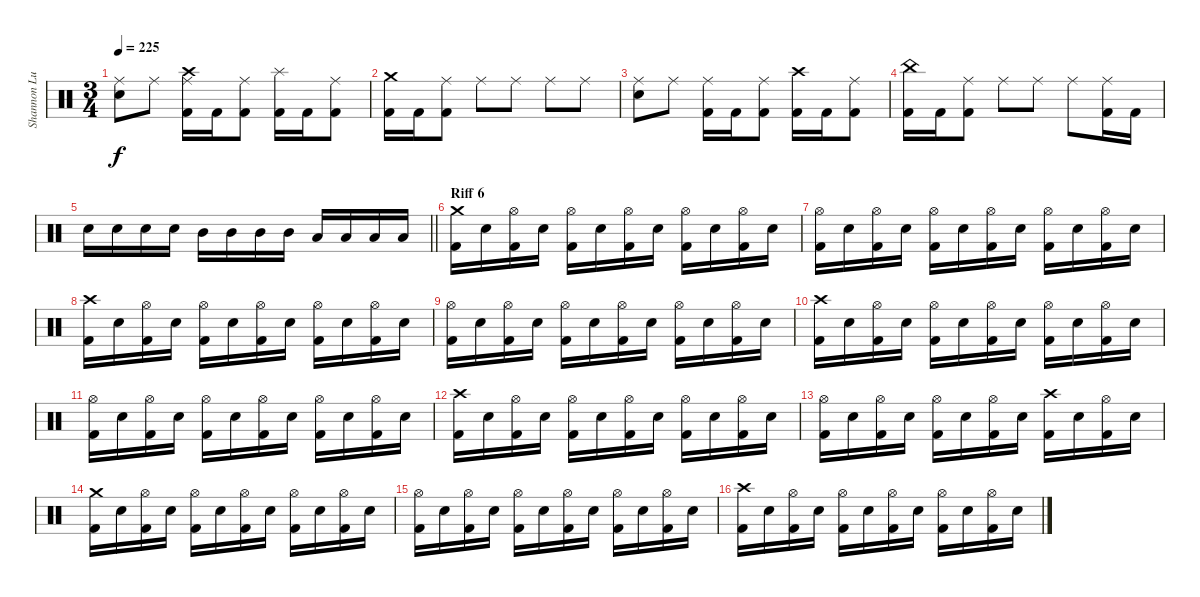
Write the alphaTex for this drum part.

\track ("Shannon Lucas" "Shannon Lu") {instrument percussion}
\staff {score}
\articulation defaults
\ts (3 4)
\tempo 225
\clef neutral
\ks c
("Ride (middle)" "Electric Snare (hit)").8{dy f} "Ride (middle)".8 ("Crash high (hit)" "Ride (middle)" "Kick (hit) 2").16 "Kick (hit) 2".16 ("Ride (middle)" "Kick (hit) 2").8 ("Splash (hit)" "Kick (hit) 2").16 "Kick (hit) 2".16 ("Ride (middle)" "Kick (hit) 2").8 |
("Crash medium (hit)" "Kick (hit) 2").16 "Kick (hit) 2".16 ("Ride (middle)" "Kick (hit) 2").8 "Ride (middle)".8 "Ride (middle)".8 "Ride (middle)".8 "Ride (middle)".8 |
("Ride (middle)" "Electric Snare (hit)").8 "Ride (middle)".8 ("Ride (middle)" "Kick (hit) 2").16 "Kick (hit) 2".16 ("Ride (middle)" "Kick (hit) 2").8 ("Crash high (hit)" "Kick (hit) 2").16 "Kick (hit) 2".16 ("Ride (middle)" "Kick (hit) 2").8 |
("China (hit)" "Kick (hit) 2").16 "Kick (hit) 2".16 ("Ride (middle)" "Kick (hit) 2").8 "Ride (middle)".8 "Ride (middle)".8 "Ride (middle)".8 ("Ride (middle)" "Kick (hit) 2").16 "Kick (hit) 2".16 |
\barLineRight lightlight "Electric Snare (hit)".16 "Electric Snare (hit)".16 "Electric Snare (hit)".16 "Electric Snare (hit)".16 "Mid Tom (hit)".16 "Mid Tom (hit)".16 "Mid Tom (hit)".16 "Mid Tom (hit)".16 "Low Tom (hit)".16 "Low Tom (hit)".16 "Low Tom (hit)".16 "Low Tom (hit)".16
|
\section ("" "Riff 6")
("Crash medium (hit)" "Kick (hit) 2").16 "Electric Snare (hit)".16 ("Hi-Hat (open)" "Kick (hit) 2").16 "Electric Snare (hit)".16 ("Hi-Hat (open)" "Kick (hit) 2").16 "Electric Snare (hit)".16 ("Hi-Hat (open)" "Kick (hit) 2").16 "Electric Snare (hit)".16 ("Hi-Hat (open)" "Kick (hit) 2").16 "Electric Snare (hit)".16 ("Hi-Hat (open)" "Kick (hit) 2").16 "Electric Snare (hit)".16 |
("Hi-Hat (open)" "Kick (hit) 2").16 "Electric Snare (hit)".16 ("Hi-Hat (open)" "Kick (hit) 2").16 "Electric Snare (hit)".16 ("Hi-Hat (open)" "Kick (hit) 2").16 "Electric Snare (hit)".16 ("Hi-Hat (open)" "Kick (hit) 2").16 "Electric Snare (hit)".16 ("Hi-Hat (open)" "Kick (hit) 2").16 "Electric Snare (hit)".16 ("Hi-Hat (open)" "Kick (hit) 2").16 "Electric Snare (hit)".16 |
("Crash high (hit)" "Kick (hit) 2").16 "Electric Snare (hit)".16 ("Hi-Hat (open)" "Kick (hit) 2").16 "Electric Snare (hit)".16 ("Hi-Hat (open)" "Kick (hit) 2").16 "Electric Snare (hit)".16 ("Hi-Hat (open)" "Kick (hit) 2").16 "Electric Snare (hit)".16 ("Hi-Hat (open)" "Kick (hit) 2").16 "Electric Snare (hit)".16 ("Hi-Hat (open)" "Kick (hit) 2").16 "Electric Snare (hit)".16 |
("Hi-Hat (open)" "Kick (hit) 2").16 "Electric Snare (hit)".16 ("Hi-Hat (open)" "Kick (hit) 2").16 "Electric Snare (hit)".16 ("Hi-Hat (open)" "Kick (hit) 2").16 "Electric Snare (hit)".16 ("Hi-Hat (open)" "Kick (hit) 2").16 "Electric Snare (hit)".16 ("Hi-Hat (open)" "Kick (hit) 2").16 "Electric Snare (hit)".16 ("Hi-Hat (open)" "Kick (hit) 2").16 "Electric Snare (hit)".16 |
("Crash high (hit)" "Kick (hit) 2").16 "Electric Snare (hit)".16 ("Hi-Hat (open)" "Kick (hit) 2").16 "Electric Snare (hit)".16 ("Hi-Hat (open)" "Kick (hit) 2").16 "Electric Snare (hit)".16 ("Hi-Hat (open)" "Kick (hit) 2").16 "Electric Snare (hit)".16 ("Hi-Hat (open)" "Kick (hit) 2").16 "Electric Snare (hit)".16 ("Hi-Hat (open)" "Kick (hit) 2").16 "Electric Snare (hit)".16 |
("Hi-Hat (open)" "Kick (hit) 2").16 "Electric Snare (hit)".16 ("Hi-Hat (open)" "Kick (hit) 2").16 "Electric Snare (hit)".16 ("Hi-Hat (open)" "Kick (hit) 2").16 "Electric Snare (hit)".16 ("Hi-Hat (open)" "Kick (hit) 2").16 "Electric Snare (hit)".16 ("Hi-Hat (open)" "Kick (hit) 2").16 "Electric Snare (hit)".16 ("Hi-Hat (open)" "Kick (hit) 2").16 "Electric Snare (hit)".16 |
("Crash high (hit)" "Kick (hit) 2").16 "Electric Snare (hit)".16 ("Hi-Hat (open)" "Kick (hit) 2").16 "Electric Snare (hit)".16 ("Hi-Hat (open)" "Kick (hit) 2").16 "Electric Snare (hit)".16 ("Hi-Hat (open)" "Kick (hit) 2").16 "Electric Snare (hit)".16 ("Hi-Hat (open)" "Kick (hit) 2").16 "Electric Snare (hit)".16 ("Hi-Hat (open)" "Kick (hit) 2").16 "Electric Snare (hit)".16 |
("Hi-Hat (open)" "Kick (hit) 2").16 "Electric Snare (hit)".16 ("Hi-Hat (open)" "Kick (hit) 2").16 "Electric Snare (hit)".16 ("Hi-Hat (open)" "Kick (hit) 2").16 "Electric Snare (hit)".16 ("Hi-Hat (open)" "Kick (hit) 2").16 "Electric Snare (hit)".16 ("Crash high (hit)" "Kick (hit) 2").16 "Electric Snare (hit)".16 ("Hi-Hat (open)" "Kick (hit) 2").16 "Electric Snare (hit)".16 |
("Crash medium (hit)" "Kick (hit) 2").16 "Electric Snare (hit)".16 ("Hi-Hat (open)" "Kick (hit) 2").16 "Electric Snare (hit)".16 ("Hi-Hat (open)" "Kick (hit) 2").16 "Electric Snare (hit)".16 ("Hi-Hat (open)" "Kick (hit) 2").16 "Electric Snare (hit)".16 ("Hi-Hat (open)" "Kick (hit) 2").16 "Electric Snare (hit)".16 ("Hi-Hat (open)" "Kick (hit) 2").16 "Electric Snare (hit)".16 |
("Hi-Hat (open)" "Kick (hit) 2").16 "Electric Snare (hit)".16 ("Hi-Hat (open)" "Kick (hit) 2").16 "Electric Snare (hit)".16 ("Hi-Hat (open)" "Kick (hit) 2").16 "Electric Snare (hit)".16 ("Hi-Hat (open)" "Kick (hit) 2").16 "Electric Snare (hit)".16 ("Hi-Hat (open)" "Kick (hit) 2").16 "Electric Snare (hit)".16 ("Hi-Hat (open)" "Kick (hit) 2").16 "Electric Snare (hit)".16 |
("Crash high (hit)" "Kick (hit) 2").16 "Electric Snare (hit)".16 ("Hi-Hat (open)" "Kick (hit) 2").16 "Electric Snare (hit)".16 ("Hi-Hat (open)" "Kick (hit) 2").16 "Electric Snare (hit)".16 ("Hi-Hat (open)" "Kick (hit) 2").16 "Electric Snare (hit)".16 ("Hi-Hat (open)" "Kick (hit) 2").16 "Electric Snare (hit)".16 ("Hi-Hat (open)" "Kick (hit) 2").16 "Electric Snare (hit)".16
